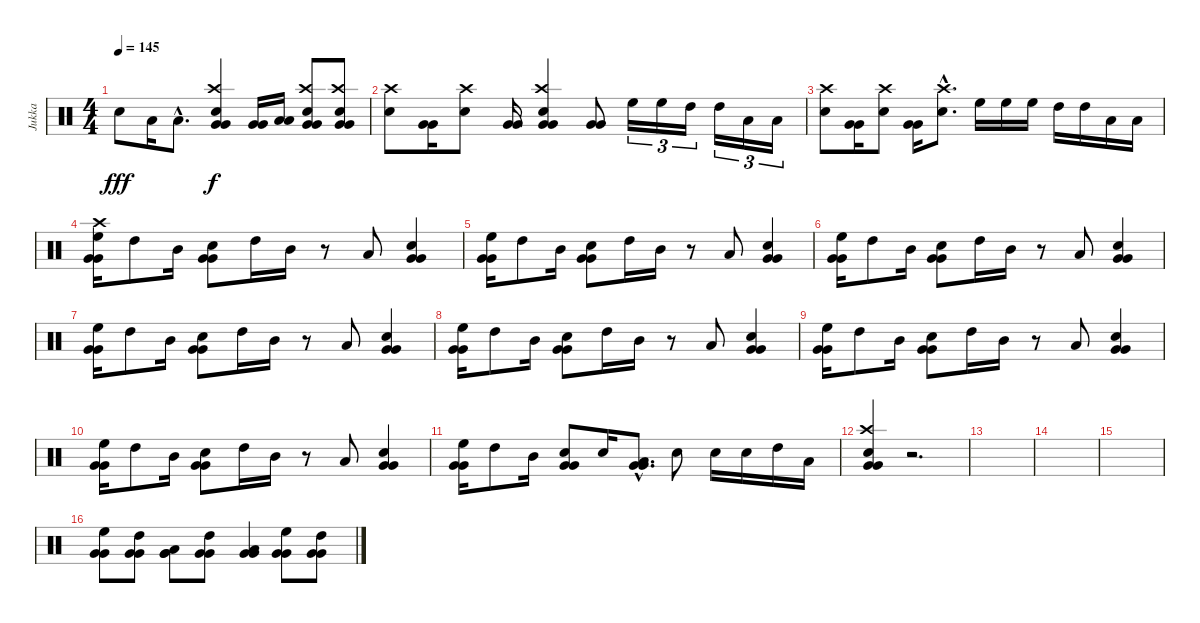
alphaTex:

\track ("Jukka" "Jukka") {instrument percussion}
\staff {score}
\articulation defaults
\ts (4 4)
\tempo 145
\clef neutral
\ks c "Electric Snare (hit)".8{dy fff} "Low Tom (hit)".16 "Low Tom (hit)"{hac}.8{d}
("Crash high (hit)" "Electric Snare (hit)" "Very Low Tom (hit)" "Very Low Tom (hit)").4{dy f} ("Very Low Tom (hit)" "Very Low Tom (hit)").16 ("Low Floor Tom (hit)" "Low Floor Tom (hit)").16 ("Crash high (hit)" "Electric Snare (hit)" "Very Low Tom (hit)" "Very Low Tom (hit)").8 ("Crash high (hit)" "Electric Snare (hit)" "Very Low Tom (hit)" "Very Low Tom (hit)").8 |
("Crash high (hit)" "Electric Snare (hit)").8 ("Very Low Tom (hit)" "Very Low Tom (hit)").16 ("Crash high (hit)" "Electric Snare (hit)").8 ("Very Low Tom (hit)" "Very Low Tom (hit)").16 ("Crash high (hit)" "Electric Snare (hit)" "Very Low Tom (hit)" "Very Low Tom (hit)").4 ("Very Low Tom (hit)" "Very Low Tom (hit)").8 "High Floor Tom (hit)".16{tu (3 2)} "High Floor Tom (hit)".16{tu (3 2)} "High Tom (hit)".16{tu (3 2)} "High Tom (hit)".16{tu (3 2)} "Low Tom (hit)".16{tu (3 2)} "Low Tom (hit)".16{tu (3 2)} |
("Crash high (hit)" "Electric Snare (hit)").8 ("Very Low Tom (hit)" "Very Low Tom (hit)").16 ("Crash high (hit)" "Electric Snare (hit)").8 ("Very Low Tom (hit)" "Very Low Tom (hit)").16 ("Crash high (hit)"{hac} "Electric Snare (hit)"{hac}).8{d} "High Floor Tom (hit)".16 "High Floor Tom (hit)".16 "High Floor Tom (hit)".16 "High Tom (hit)".16 "High Tom (hit)".16 "Low Tom (hit)".16 "Low Tom (hit)".16 |
("Crash high (hit)" "High Floor Tom (hit)" "Very Low Tom (hit)" "Very Low Tom (hit)").16 "High Tom (hit)".8 "Mid Tom (hit)".16 ("Electric Snare (hit)" "Very Low Tom (hit)" "Very Low Tom (hit)").8 "High Tom (hit)".16 "Mid Tom (hit)".16 r.8 "Low Tom (hit)".8 ("Electric Snare (hit)" "Very Low Tom (hit)" "Very Low Tom (hit)").4 |
("High Floor Tom (hit)" "Very Low Tom (hit)" "Very Low Tom (hit)").16 "High Tom (hit)".8 "Mid Tom (hit)".16 ("Electric Snare (hit)" "Very Low Tom (hit)" "Very Low Tom (hit)").8 "High Tom (hit)".16 "Mid Tom (hit)".16 r.8 "Low Tom (hit)".8 ("Electric Snare (hit)" "Very Low Tom (hit)" "Very Low Tom (hit)").4 |
("High Floor Tom (hit)" "Very Low Tom (hit)" "Very Low Tom (hit)").16 "High Tom (hit)".8 "Mid Tom (hit)".16 ("Electric Snare (hit)" "Very Low Tom (hit)" "Very Low Tom (hit)").8 "High Tom (hit)".16 "Mid Tom (hit)".16 r.8 "Low Tom (hit)".8 ("Electric Snare (hit)" "Very Low Tom (hit)" "Very Low Tom (hit)").4 |
("High Floor Tom (hit)" "Very Low Tom (hit)" "Very Low Tom (hit)").16 "High Tom (hit)".8 "Mid Tom (hit)".16 ("Electric Snare (hit)" "Very Low Tom (hit)" "Very Low Tom (hit)").8 "High Tom (hit)".16 "Mid Tom (hit)".16 r.8 "Low Tom (hit)".8 ("Electric Snare (hit)" "Very Low Tom (hit)" "Very Low Tom (hit)").4 |
("High Floor Tom (hit)" "Very Low Tom (hit)" "Very Low Tom (hit)").16 "High Tom (hit)".8 "Mid Tom (hit)".16 ("Electric Snare (hit)" "Very Low Tom (hit)" "Very Low Tom (hit)").8 "High Tom (hit)".16 "Mid Tom (hit)".16 r.8 "Low Tom (hit)".8 ("Electric Snare (hit)" "Very Low Tom (hit)" "Very Low Tom (hit)").4 |
("High Floor Tom (hit)" "Very Low Tom (hit)" "Very Low Tom (hit)").16 "High Tom (hit)".8 "Mid Tom (hit)".16 ("Electric Snare (hit)" "Very Low Tom (hit)" "Very Low Tom (hit)").8 "High Tom (hit)".16 "Mid Tom (hit)".16 r.8 "Low Tom (hit)".8 ("Electric Snare (hit)" "Very Low Tom (hit)" "Very Low Tom (hit)").4 |
("High Floor Tom (hit)" "Very Low Tom (hit)" "Very Low Tom (hit)").16 "High Tom (hit)".8 "Mid Tom (hit)".16 ("Electric Snare (hit)" "Very Low Tom (hit)" "Very Low Tom (hit)").8 "High Tom (hit)".16 "Mid Tom (hit)".16 r.8 "Low Tom (hit)".8 ("Electric Snare (hit)" "Very Low Tom (hit)" "Very Low Tom (hit)").4 |
("High Floor Tom (hit)" "Very Low Tom (hit)" "Very Low Tom (hit)").16 "High Tom (hit)".8 "Mid Tom (hit)".16 ("Electric Snare (hit)" "Very Low Tom (hit)" "Very Low Tom (hit)").8 "Electric Snare (hit)".16 ("Low Tom (hit)"{hac} "Very Low Tom (hit)"{hac} "Very Low Tom (hit)"{hac}).8{d} "Electric Snare (hit)".8 "Electric Snare (hit)".16 "Electric Snare (hit)".16 "High Tom (hit)".16 "Low Tom (hit)".16 |
("Crash high (hit)" "Electric Snare (hit)" "Very Low Tom (hit)" "Very Low Tom (hit)").4 r.2{d} |
|
|
|
("High Floor Tom (hit)" "Very Low Tom (hit)" "Very Low Tom (hit)").8 ("High Tom (hit)" "Very Low Tom (hit)" "Very Low Tom (hit)").8 ("Low Tom (hit)" "Very Low Tom (hit)" "Very Low Tom (hit)").8 ("High Tom (hit)" "Very Low Tom (hit)" "Very Low Tom (hit)").8 ("Low Tom (hit)" "Very Low Tom (hit)" "Very Low Tom (hit)").4 ("High Floor Tom (hit)" "Very Low Tom (hit)" "Very Low Tom (hit)").8 ("High Tom (hit)" "Very Low Tom (hit)" "Very Low Tom (hit)").8
